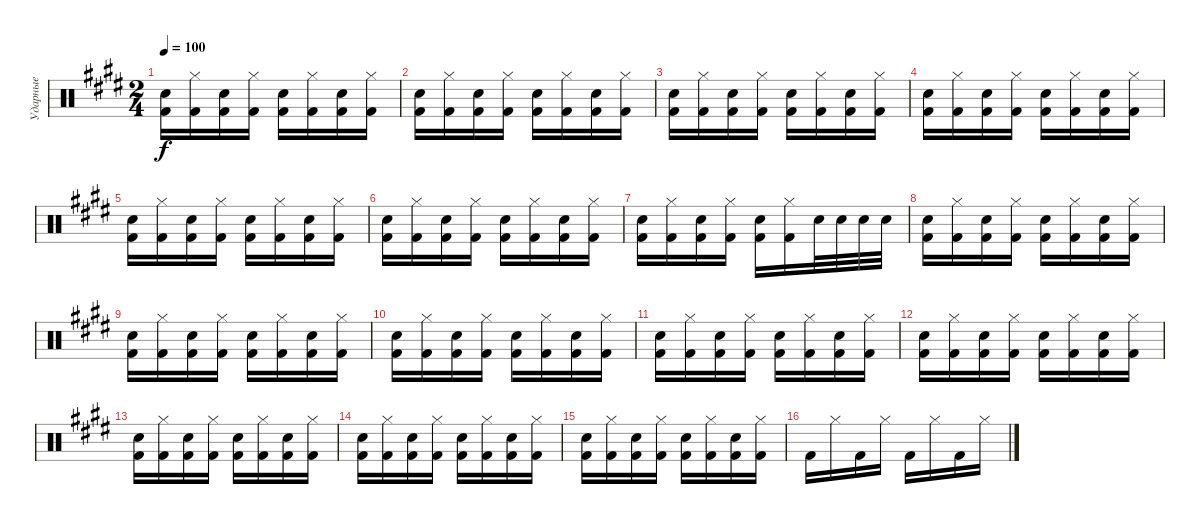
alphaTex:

\track ("Ударные" "Ударные") {instrument percussion}
\staff {score}
\articulation defaults
\ts (2 4)
\tempo 100
\clef neutral
\ks c#minor
("Snare (hit) 2" "Kick (hit) 2").16{dy f} ("Hi-Hat (closed)" "Kick (hit) 2").16 ("Snare (hit) 2" "Kick (hit) 2").16 ("Hi-Hat (closed)" "Kick (hit) 2").16 ("Snare (hit) 2" "Kick (hit) 2").16 ("Hi-Hat (closed)" "Kick (hit) 2").16 ("Snare (hit) 2" "Kick (hit) 2").16 ("Hi-Hat (closed)" "Kick (hit) 2").16 |
("Snare (hit) 2" "Kick (hit) 2").16 ("Hi-Hat (closed)" "Kick (hit) 2").16 ("Snare (hit) 2" "Kick (hit) 2").16 ("Hi-Hat (closed)" "Kick (hit) 2").16 ("Snare (hit) 2" "Kick (hit) 2").16 ("Hi-Hat (closed)" "Kick (hit) 2").16 ("Snare (hit) 2" "Kick (hit) 2").16 ("Hi-Hat (closed)" "Kick (hit) 2").16 |
("Snare (hit) 2" "Kick (hit) 2").16 ("Hi-Hat (closed)" "Kick (hit) 2").16 ("Snare (hit) 2" "Kick (hit) 2").16 ("Hi-Hat (closed)" "Kick (hit) 2").16 ("Snare (hit) 2" "Kick (hit) 2").16 ("Hi-Hat (closed)" "Kick (hit) 2").16 ("Snare (hit) 2" "Kick (hit) 2").16 ("Hi-Hat (closed)" "Kick (hit) 2").16 |
("Snare (hit) 2" "Kick (hit) 2").16 ("Hi-Hat (closed)" "Kick (hit) 2").16 ("Snare (hit) 2" "Kick (hit) 2").16 ("Hi-Hat (closed)" "Kick (hit) 2").16 ("Snare (hit) 2" "Kick (hit) 2").16 ("Hi-Hat (closed)" "Kick (hit) 2").16 ("Snare (hit) 2" "Kick (hit) 2").16 ("Hi-Hat (closed)" "Kick (hit) 2").16 |
("Snare (hit) 2" "Kick (hit) 2").16 ("Hi-Hat (closed)" "Kick (hit) 2").16 ("Snare (hit) 2" "Kick (hit) 2").16 ("Hi-Hat (closed)" "Kick (hit) 2").16 ("Snare (hit) 2" "Kick (hit) 2").16 ("Hi-Hat (closed)" "Kick (hit) 2").16 ("Snare (hit) 2" "Kick (hit) 2").16 ("Hi-Hat (closed)" "Kick (hit) 2").16 |
("Snare (hit) 2" "Kick (hit) 2").16 ("Hi-Hat (closed)" "Kick (hit) 2").16 ("Snare (hit) 2" "Kick (hit) 2").16 ("Hi-Hat (closed)" "Kick (hit) 2").16 ("Snare (hit) 2" "Kick (hit) 2").16 ("Hi-Hat (closed)" "Kick (hit) 2").16 ("Snare (hit) 2" "Kick (hit) 2").16 ("Hi-Hat (closed)" "Kick (hit) 2").16 |
("Snare (hit) 2" "Kick (hit) 2").16 ("Hi-Hat (closed)" "Kick (hit) 2").16 ("Snare (hit) 2" "Kick (hit) 2").16 ("Hi-Hat (closed)" "Kick (hit) 2").16 ("Snare (hit) 2" "Kick (hit) 2").16 ("Hi-Hat (closed)" "Kick (hit) 2").16 "Snare (hit) 2".32 "Snare (hit) 2".32 "Snare (hit) 2".32 "Snare (hit) 2".32 |
("Snare (hit) 2" "Kick (hit) 2").16 ("Hi-Hat (closed)" "Kick (hit) 2").16 ("Snare (hit) 2" "Kick (hit) 2").16 ("Hi-Hat (closed)" "Kick (hit) 2").16 ("Snare (hit) 2" "Kick (hit) 2").16 ("Hi-Hat (closed)" "Kick (hit) 2").16 ("Snare (hit) 2" "Kick (hit) 2").16 ("Hi-Hat (closed)" "Kick (hit) 2").16 |
("Snare (hit) 2" "Kick (hit) 2").16 ("Hi-Hat (closed)" "Kick (hit) 2").16 ("Snare (hit) 2" "Kick (hit) 2").16 ("Hi-Hat (closed)" "Kick (hit) 2").16 ("Snare (hit) 2" "Kick (hit) 2").16 ("Hi-Hat (closed)" "Kick (hit) 2").16 ("Snare (hit) 2" "Kick (hit) 2").16 ("Hi-Hat (closed)" "Kick (hit) 2").16 |
\section ("" "")
("Snare (hit) 2" "Kick (hit) 2").16 ("Hi-Hat (closed)" "Kick (hit) 2").16 ("Snare (hit) 2" "Kick (hit) 2").16 ("Hi-Hat (closed)" "Kick (hit) 2").16 ("Snare (hit) 2" "Kick (hit) 2").16 ("Hi-Hat (closed)" "Kick (hit) 2").16 ("Snare (hit) 2" "Kick (hit) 2").16 ("Hi-Hat (closed)" "Kick (hit) 2").16 |
("Snare (hit) 2" "Kick (hit) 2").16 ("Hi-Hat (closed)" "Kick (hit) 2").16 ("Snare (hit) 2" "Kick (hit) 2").16 ("Hi-Hat (closed)" "Kick (hit) 2").16 ("Snare (hit) 2" "Kick (hit) 2").16 ("Hi-Hat (closed)" "Kick (hit) 2").16 ("Snare (hit) 2" "Kick (hit) 2").16 ("Hi-Hat (closed)" "Kick (hit) 2").16 |
("Snare (hit) 2" "Kick (hit) 2").16 ("Hi-Hat (closed)" "Kick (hit) 2").16 ("Snare (hit) 2" "Kick (hit) 2").16 ("Hi-Hat (closed)" "Kick (hit) 2").16 ("Snare (hit) 2" "Kick (hit) 2").16 ("Hi-Hat (closed)" "Kick (hit) 2").16 ("Snare (hit) 2" "Kick (hit) 2").16 ("Hi-Hat (closed)" "Kick (hit) 2").16 |
("Snare (hit) 2" "Kick (hit) 2").16 ("Hi-Hat (closed)" "Kick (hit) 2").16 ("Snare (hit) 2" "Kick (hit) 2").16 ("Hi-Hat (closed)" "Kick (hit) 2").16 ("Snare (hit) 2" "Kick (hit) 2").16 ("Hi-Hat (closed)" "Kick (hit) 2").16 ("Snare (hit) 2" "Kick (hit) 2").16 ("Hi-Hat (closed)" "Kick (hit) 2").16 |
("Snare (hit) 2" "Kick (hit) 2").16 ("Hi-Hat (closed)" "Kick (hit) 2").16 ("Snare (hit) 2" "Kick (hit) 2").16 ("Hi-Hat (closed)" "Kick (hit) 2").16 ("Snare (hit) 2" "Kick (hit) 2").16 ("Hi-Hat (closed)" "Kick (hit) 2").16 ("Snare (hit) 2" "Kick (hit) 2").16 ("Hi-Hat (closed)" "Kick (hit) 2").16 |
("Snare (hit) 2" "Kick (hit) 2").16 ("Hi-Hat (closed)" "Kick (hit) 2").16 ("Snare (hit) 2" "Kick (hit) 2").16 ("Hi-Hat (closed)" "Kick (hit) 2").16 ("Snare (hit) 2" "Kick (hit) 2").16 ("Hi-Hat (closed)" "Kick (hit) 2").16 ("Snare (hit) 2" "Kick (hit) 2").16 ("Hi-Hat (closed)" "Kick (hit) 2").16 |
"Kick (hit) 2".16 "Hi-Hat (closed)".16 "Kick (hit) 2".16 "Hi-Hat (closed)".16 "Kick (hit) 2".16 "Hi-Hat (closed)".16 "Kick (hit) 2".16 "Hi-Hat (closed)".16
